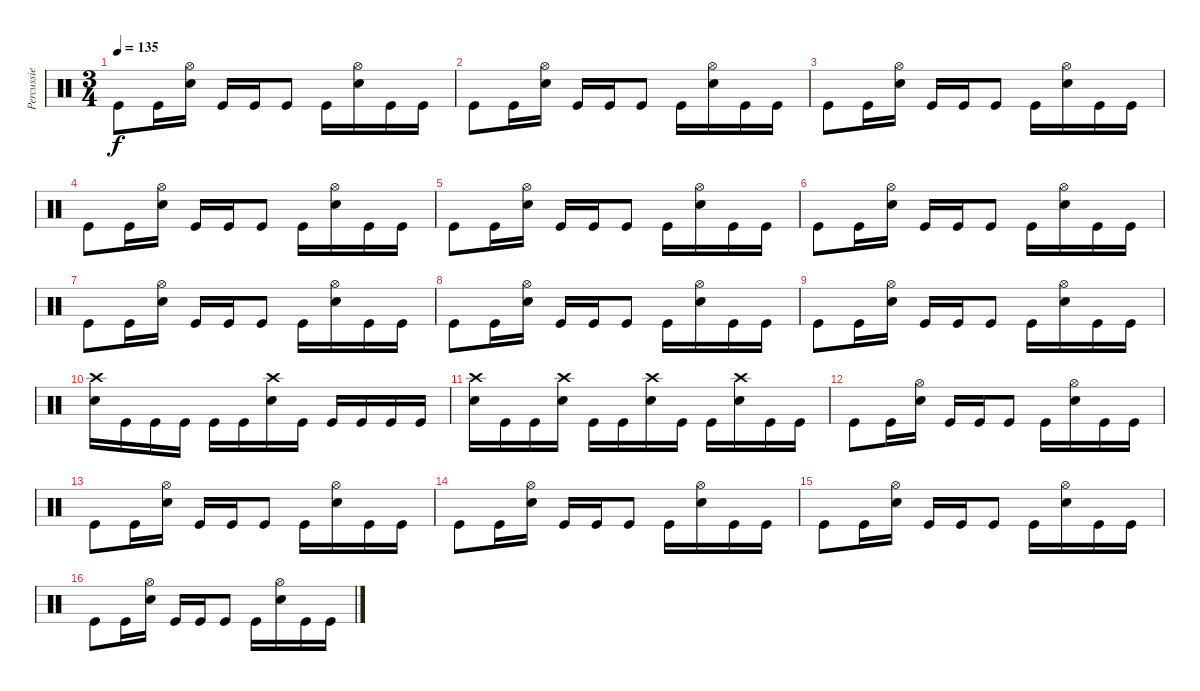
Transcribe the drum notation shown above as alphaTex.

\track ("Percussie" "Percussie") {instrument percussion}
\staff {score}
\articulation defaults
\ts (3 4)
\tempo 135
\clef neutral
\ks c "Kick (hit)".8{dy f} "Kick (hit)".16
("Hi-Hat (open)" "Snare (hit) 2").16 "Kick (hit)".16 "Kick (hit)".16 "Kick (hit)".8 "Kick (hit)".16 ("Hi-Hat (open)" "Snare (hit) 2").16 "Kick (hit)".16 "Kick (hit)".16 |
"Kick (hit)".8 "Kick (hit)".16 ("Hi-Hat (open)" "Snare (hit) 2").16 "Kick (hit)".16 "Kick (hit)".16 "Kick (hit)".8 "Kick (hit)".16 ("Hi-Hat (open)" "Snare (hit) 2").16 "Kick (hit)".16 "Kick (hit)".16 |
"Kick (hit)".8 "Kick (hit)".16 ("Hi-Hat (open)" "Snare (hit) 2").16 "Kick (hit)".16 "Kick (hit)".16 "Kick (hit)".8 "Kick (hit)".16 ("Hi-Hat (open)" "Snare (hit) 2").16 "Kick (hit)".16 "Kick (hit)".16 |
"Kick (hit)".8 "Kick (hit)".16 ("Hi-Hat (open)" "Snare (hit) 2").16 "Kick (hit)".16 "Kick (hit)".16 "Kick (hit)".8 "Kick (hit)".16 ("Hi-Hat (open)" "Snare (hit) 2").16 "Kick (hit)".16 "Kick (hit)".16 |
"Kick (hit)".8 "Kick (hit)".16 ("Hi-Hat (open)" "Snare (hit) 2").16 "Kick (hit)".16 "Kick (hit)".16 "Kick (hit)".8 "Kick (hit)".16 ("Hi-Hat (open)" "Snare (hit) 2").16 "Kick (hit)".16 "Kick (hit)".16 |
"Kick (hit)".8 "Kick (hit)".16 ("Hi-Hat (open)" "Snare (hit) 2").16 "Kick (hit)".16 "Kick (hit)".16 "Kick (hit)".8 "Kick (hit)".16 ("Hi-Hat (open)" "Snare (hit) 2").16 "Kick (hit)".16 "Kick (hit)".16 |
"Kick (hit)".8 "Kick (hit)".16 ("Hi-Hat (open)" "Snare (hit) 2").16 "Kick (hit)".16 "Kick (hit)".16 "Kick (hit)".8 "Kick (hit)".16 ("Hi-Hat (open)" "Snare (hit) 2").16 "Kick (hit)".16 "Kick (hit)".16 |
"Kick (hit)".8 "Kick (hit)".16 ("Hi-Hat (open)" "Snare (hit) 2").16 "Kick (hit)".16 "Kick (hit)".16 "Kick (hit)".8 "Kick (hit)".16 ("Hi-Hat (open)" "Snare (hit) 2").16 "Kick (hit)".16 "Kick (hit)".16 |
"Kick (hit)".8 "Kick (hit)".16 ("Hi-Hat (open)" "Snare (hit) 2").16 "Kick (hit)".16 "Kick (hit)".16 "Kick (hit)".8 "Kick (hit)".16 ("Hi-Hat (open)" "Snare (hit) 2").16 "Kick (hit)".16 "Kick (hit)".16 |
("Crash high (hit)" "Snare (hit) 2").16 "Kick (hit)".16 "Kick (hit)".16 "Kick (hit)".16 "Kick (hit)".16 "Kick (hit)".16 ("Crash high (hit)" "Snare (hit) 2").16 "Kick (hit)".16 "Kick (hit)".16 "Kick (hit)".16 "Kick (hit)".16 "Kick (hit)".16 |
("Crash high (hit)" "Snare (hit) 2").16 "Kick (hit)".16 "Kick (hit)".16 ("Crash high (hit)" "Snare (hit) 2").16 "Kick (hit)".16 "Kick (hit)".16 ("Crash high (hit)" "Snare (hit) 2").16 "Kick (hit)".16 "Kick (hit)".16 ("Crash high (hit)" "Snare (hit) 2").16 "Kick (hit)".16 "Kick (hit)".16 |
"Kick (hit)".8 "Kick (hit)".16 ("Hi-Hat (open)" "Snare (hit) 2").16 "Kick (hit)".16 "Kick (hit)".16 "Kick (hit)".8 "Kick (hit)".16 ("Hi-Hat (open)" "Snare (hit) 2").16 "Kick (hit)".16 "Kick (hit)".16 |
"Kick (hit)".8 "Kick (hit)".16 ("Hi-Hat (open)" "Snare (hit) 2").16 "Kick (hit)".16 "Kick (hit)".16 "Kick (hit)".8 "Kick (hit)".16 ("Hi-Hat (open)" "Snare (hit) 2").16 "Kick (hit)".16 "Kick (hit)".16 |
"Kick (hit)".8 "Kick (hit)".16 ("Hi-Hat (open)" "Snare (hit) 2").16 "Kick (hit)".16 "Kick (hit)".16 "Kick (hit)".8 "Kick (hit)".16 ("Hi-Hat (open)" "Snare (hit) 2").16 "Kick (hit)".16 "Kick (hit)".16 |
"Kick (hit)".8 "Kick (hit)".16 ("Hi-Hat (open)" "Snare (hit) 2").16 "Kick (hit)".16 "Kick (hit)".16 "Kick (hit)".8 "Kick (hit)".16 ("Hi-Hat (open)" "Snare (hit) 2").16 "Kick (hit)".16 "Kick (hit)".16 |
"Kick (hit)".8 "Kick (hit)".16 ("Hi-Hat (open)" "Snare (hit) 2").16 "Kick (hit)".16 "Kick (hit)".16 "Kick (hit)".8 "Kick (hit)".16 ("Hi-Hat (open)" "Snare (hit) 2").16 "Kick (hit)".16 "Kick (hit)".16
